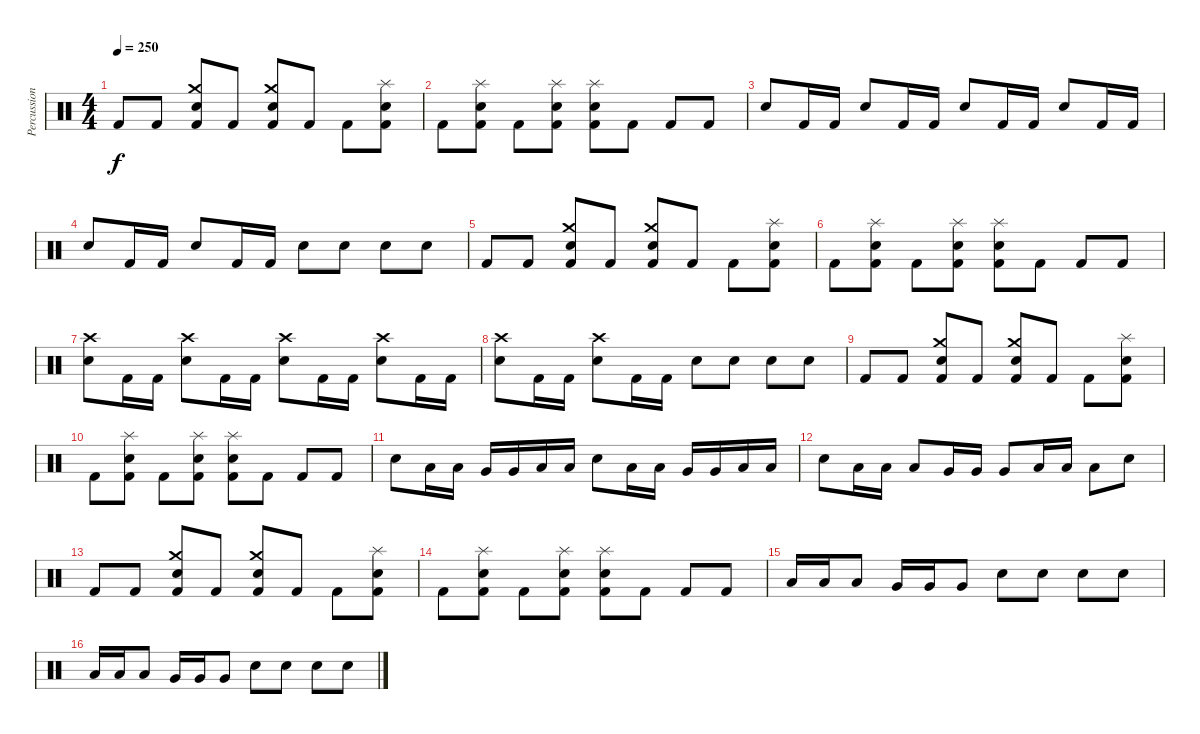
\track ("Percussioni" "Percussion") {instrument percussion}
\staff {score}
\articulation defaults
\ts (4 4)
\tempo 250
\clef neutral
\ks c "Kick (hit) 2".8{dy f} "Kick (hit) 2".8
("Crash medium (hit)" "Electric Snare (hit)" "Kick (hit) 2").8 "Kick (hit) 2".8 ("Crash medium (hit)" "Electric Snare (hit)" "Kick (hit) 2").8 "Kick (hit) 2".8 "Kick (hit) 2".8 ("Splash (hit)" "Electric Snare (hit)" "Kick (hit) 2").8 |
"Kick (hit) 2".8 ("Splash (hit)" "Electric Snare (hit)" "Kick (hit) 2").8 "Kick (hit) 2".8 ("Splash (hit)" "Electric Snare (hit)" "Kick (hit) 2").8 ("Splash (hit)" "Electric Snare (hit)" "Kick (hit) 2").8 "Kick (hit) 2".8 "Kick (hit) 2".8 "Kick (hit) 2".8 |
"Electric Snare (hit)".8 "Kick (hit) 2".16 "Kick (hit) 2".16 "Electric Snare (hit)".8 "Kick (hit) 2".16 "Kick (hit) 2".16 "Electric Snare (hit)".8 "Kick (hit) 2".16 "Kick (hit) 2".16 "Electric Snare (hit)".8 "Kick (hit) 2".16 "Kick (hit) 2".16 |
"Electric Snare (hit)".8 "Kick (hit) 2".16 "Kick (hit) 2".16 "Electric Snare (hit)".8 "Kick (hit) 2".16 "Kick (hit) 2".16 "Electric Snare (hit)".8 "Electric Snare (hit)".8 "Electric Snare (hit)".8 "Electric Snare (hit)".8 |
"Kick (hit) 2".8 "Kick (hit) 2".8 ("Crash medium (hit)" "Electric Snare (hit)" "Kick (hit) 2").8 "Kick (hit) 2".8 ("Crash medium (hit)" "Electric Snare (hit)" "Kick (hit) 2").8 "Kick (hit) 2".8 "Kick (hit) 2".8 ("Splash (hit)" "Electric Snare (hit)" "Kick (hit) 2").8 |
"Kick (hit) 2".8 ("Splash (hit)" "Electric Snare (hit)" "Kick (hit) 2").8 "Kick (hit) 2".8 ("Splash (hit)" "Electric Snare (hit)" "Kick (hit) 2").8 ("Splash (hit)" "Electric Snare (hit)" "Kick (hit) 2").8 "Kick (hit) 2".8 "Kick (hit) 2".8 "Kick (hit) 2".8 |
("Crash high (hit)" "Electric Snare (hit)").8 "Kick (hit) 2".16 "Kick (hit) 2".16 ("Crash high (hit)" "Electric Snare (hit)").8 "Kick (hit) 2".16 "Kick (hit) 2".16 ("Crash high (hit)" "Electric Snare (hit)").8 "Kick (hit) 2".16 "Kick (hit) 2".16 ("Crash high (hit)" "Electric Snare (hit)").8 "Kick (hit) 2".16 "Kick (hit) 2".16 |
("Crash high (hit)" "Electric Snare (hit)").8 "Kick (hit) 2".16 "Kick (hit) 2".16 ("Crash high (hit)" "Electric Snare (hit)").8 "Kick (hit) 2".16 "Kick (hit) 2".16 "Electric Snare (hit)".8 "Electric Snare (hit)".8 "Electric Snare (hit)".8 "Electric Snare (hit)".8 |
"Kick (hit) 2".8 "Kick (hit) 2".8 ("Crash medium (hit)" "Electric Snare (hit)" "Kick (hit) 2").8 "Kick (hit) 2".8 ("Crash medium (hit)" "Electric Snare (hit)" "Kick (hit) 2").8 "Kick (hit) 2".8 "Kick (hit) 2".8 ("Splash (hit)" "Electric Snare (hit)" "Kick (hit) 2").8 |
"Kick (hit) 2".8 ("Splash (hit)" "Electric Snare (hit)" "Kick (hit) 2").8 "Kick (hit) 2".8 ("Splash (hit)" "Electric Snare (hit)" "Kick (hit) 2").8 ("Splash (hit)" "Electric Snare (hit)" "Kick (hit) 2").8 "Kick (hit) 2".8 "Kick (hit) 2".8 "Kick (hit) 2".8 |
"Electric Snare (hit)".8 "Low Tom (hit)".16 "Low Tom (hit)".16 "Very Low Tom (hit)".16 "Very Low Tom (hit)".16 "Low Floor Tom (hit)".16 "Low Floor Tom (hit)".16 "Electric Snare (hit)".8 "Low Tom (hit)".16 "Low Tom (hit)".16 "Very Low Tom (hit)".16 "Very Low Tom (hit)".16 "Low Floor Tom (hit)".16 "Low Floor Tom (hit)".16 |
"Electric Snare (hit)".8 "Low Tom (hit)".16 "Low Tom (hit)".16 "Low Tom (hit)".8 "Very Low Tom (hit)".16 "Very Low Tom (hit)".16 "Very Low Tom (hit)".8 "Low Floor Tom (hit)".16 "Low Floor Tom (hit)".16 "Low Floor Tom (hit)".8 "Electric Snare (hit)".8 |
"Kick (hit) 2".8 "Kick (hit) 2".8 ("Crash medium (hit)" "Electric Snare (hit)" "Kick (hit) 2").8 "Kick (hit) 2".8 ("Crash medium (hit)" "Electric Snare (hit)" "Kick (hit) 2").8 "Kick (hit) 2".8 "Kick (hit) 2".8 ("Splash (hit)" "Electric Snare (hit)" "Kick (hit) 2").8 |
"Kick (hit) 2".8 ("Splash (hit)" "Electric Snare (hit)" "Kick (hit) 2").8 "Kick (hit) 2".8 ("Splash (hit)" "Electric Snare (hit)" "Kick (hit) 2").8 ("Splash (hit)" "Electric Snare (hit)" "Kick (hit) 2").8 "Kick (hit) 2".8 "Kick (hit) 2".8 "Kick (hit) 2".8 |
"Low Tom (hit)".16 "Low Tom (hit)".16 "Low Tom (hit)".8 "Very Low Tom (hit)".16 "Very Low Tom (hit)".16 "Very Low Tom (hit)".8 "Electric Snare (hit)".8 "Electric Snare (hit)".8 "Electric Snare (hit)".8 "Electric Snare (hit)".8 |
"Low Tom (hit)".16 "Low Tom (hit)".16 "Low Tom (hit)".8 "Very Low Tom (hit)".16 "Very Low Tom (hit)".16 "Very Low Tom (hit)".8 "Electric Snare (hit)".8 "Electric Snare (hit)".8 "Electric Snare (hit)".8 "Electric Snare (hit)".8
